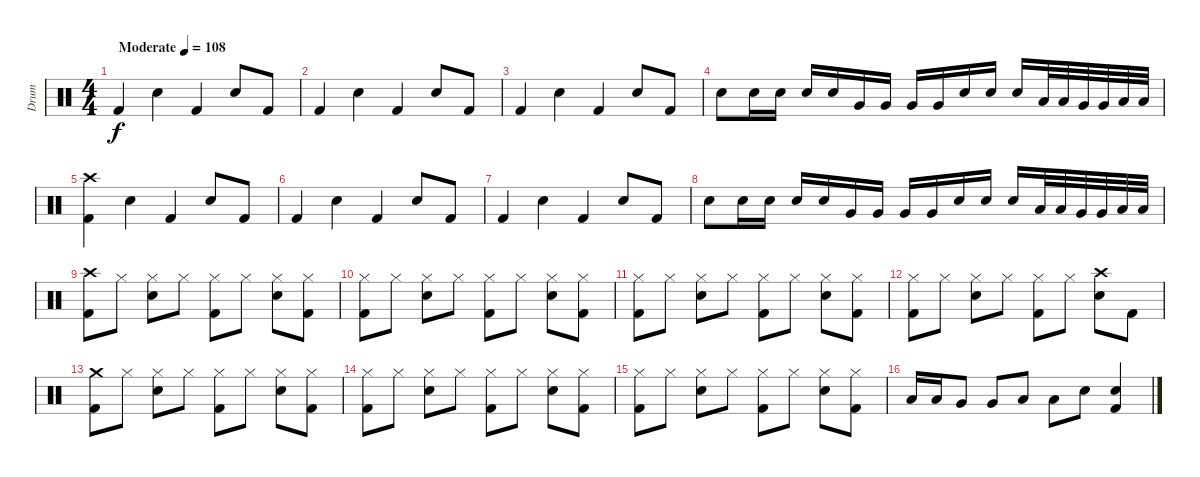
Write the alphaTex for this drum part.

\track ("Drum" "Drum") {instrument percussion}
\staff {score}
\articulation defaults
\ts (4 4)
\tempo (108 "Moderate")
\clef neutral
\ks c "Kick (hit) 2".4{dy f} "Electric Snare (hit)".4 "Kick (hit) 2".4 "Electric Snare (hit)".8 "Kick (hit) 2".8
|
"Kick (hit) 2".4 "Electric Snare (hit)".4 "Kick (hit) 2".4 "Electric Snare (hit)".8 "Kick (hit) 2".8 |
"Kick (hit) 2".4 "Electric Snare (hit)".4 "Kick (hit) 2".4 "Electric Snare (hit)".8 "Kick (hit) 2".8 |
"Electric Snare (hit)".8 "Electric Snare (hit)".16 "Electric Snare (hit)".16 "Electric Snare (hit)".16 "Electric Snare (hit)".16 "Very Low Tom (hit)".16 "Very Low Tom (hit)".16 "Very Low Tom (hit)".16 "Very Low Tom (hit)".16 "Electric Snare (hit)".16 "Electric Snare (hit)".16 "Electric Snare (hit)".16 "Low Tom (hit)".32 "Low Tom (hit)".32 "Very Low Tom (hit)".32 "Very Low Tom (hit)".32 "Low Floor Tom (hit)".32 "Low Floor Tom (hit)".32 |
("Crash high (hit)" "Kick (hit) 2").4 "Electric Snare (hit)".4 "Kick (hit) 2".4 "Electric Snare (hit)".8 "Kick (hit) 2".8 |
"Kick (hit) 2".4 "Electric Snare (hit)".4 "Kick (hit) 2".4 "Electric Snare (hit)".8 "Kick (hit) 2".8 |
"Kick (hit) 2".4 "Electric Snare (hit)".4 "Kick (hit) 2".4 "Electric Snare (hit)".8 "Kick (hit) 2".8 |
"Electric Snare (hit)".8 "Electric Snare (hit)".16 "Electric Snare (hit)".16 "Electric Snare (hit)".16 "Electric Snare (hit)".16 "Very Low Tom (hit)".16 "Very Low Tom (hit)".16 "Very Low Tom (hit)".16 "Very Low Tom (hit)".16 "Electric Snare (hit)".16 "Electric Snare (hit)".16 "Electric Snare (hit)".16 "Low Tom (hit)".32 "Low Tom (hit)".32 "Very Low Tom (hit)".32 "Very Low Tom (hit)".32 "Low Floor Tom (hit)".32 "Low Floor Tom (hit)".32 |
("Crash high (hit)" "Kick (hit) 2").8 "Hi-Hat (closed)".8 ("Hi-Hat (closed)" "Electric Snare (hit)").8 "Hi-Hat (closed)".8 ("Hi-Hat (closed)" "Kick (hit) 2").8 "Hi-Hat (closed)".8 ("Hi-Hat (closed)" "Electric Snare (hit)").8 ("Hi-Hat (closed)" "Kick (hit) 2").8 |
("Hi-Hat (closed)" "Kick (hit) 2").8 "Hi-Hat (closed)".8 ("Hi-Hat (closed)" "Electric Snare (hit)").8 "Hi-Hat (closed)".8 ("Hi-Hat (closed)" "Kick (hit) 2").8 "Hi-Hat (closed)".8 ("Hi-Hat (closed)" "Electric Snare (hit)").8 ("Hi-Hat (closed)" "Kick (hit) 2").8 |
("Hi-Hat (closed)" "Kick (hit) 2").8 "Hi-Hat (closed)".8 ("Hi-Hat (closed)" "Electric Snare (hit)").8 "Hi-Hat (closed)".8 ("Hi-Hat (closed)" "Kick (hit) 2").8 "Hi-Hat (closed)".8 ("Hi-Hat (closed)" "Electric Snare (hit)").8 ("Hi-Hat (closed)" "Kick (hit) 2").8 |
("Hi-Hat (closed)" "Kick (hit) 2").8 "Hi-Hat (closed)".8 ("Hi-Hat (closed)" "Electric Snare (hit)").8 "Hi-Hat (closed)".8 ("Hi-Hat (closed)" "Kick (hit) 2").8 "Hi-Hat (closed)".8 ("Crash high (hit)" "Electric Snare (hit)").8 "Kick (hit) 2".8 |
("Crash medium (hit)" "Kick (hit) 2").8 "Hi-Hat (closed)".8 ("Hi-Hat (closed)" "Electric Snare (hit)").8 "Hi-Hat (closed)".8 ("Hi-Hat (closed)" "Kick (hit) 2").8 "Hi-Hat (closed)".8 ("Hi-Hat (closed)" "Electric Snare (hit)").8 ("Hi-Hat (closed)" "Kick (hit) 2").8 |
("Hi-Hat (closed)" "Kick (hit) 2").8 "Hi-Hat (closed)".8 ("Hi-Hat (closed)" "Electric Snare (hit)").8 "Hi-Hat (closed)".8 ("Hi-Hat (closed)" "Kick (hit) 2").8 "Hi-Hat (closed)".8 ("Hi-Hat (closed)" "Electric Snare (hit)").8 ("Hi-Hat (closed)" "Kick (hit) 2").8 |
("Hi-Hat (closed)" "Kick (hit) 2").8 "Hi-Hat (closed)".8 ("Hi-Hat (closed)" "Electric Snare (hit)").8 "Hi-Hat (closed)".8 ("Hi-Hat (closed)" "Kick (hit) 2").8 "Hi-Hat (closed)".8 ("Hi-Hat (closed)" "Electric Snare (hit)").8 ("Hi-Hat (closed)" "Kick (hit) 2").8 |
"Low Floor Tom (hit)".16 "Low Floor Tom (hit)".16 "Very Low Tom (hit)".8 "Very Low Tom (hit)".8 "Low Tom (hit)".8 "Low Tom (hit)".8 "Electric Snare (hit)".8 ("Electric Snare (hit)" "Kick (hit) 2").4
